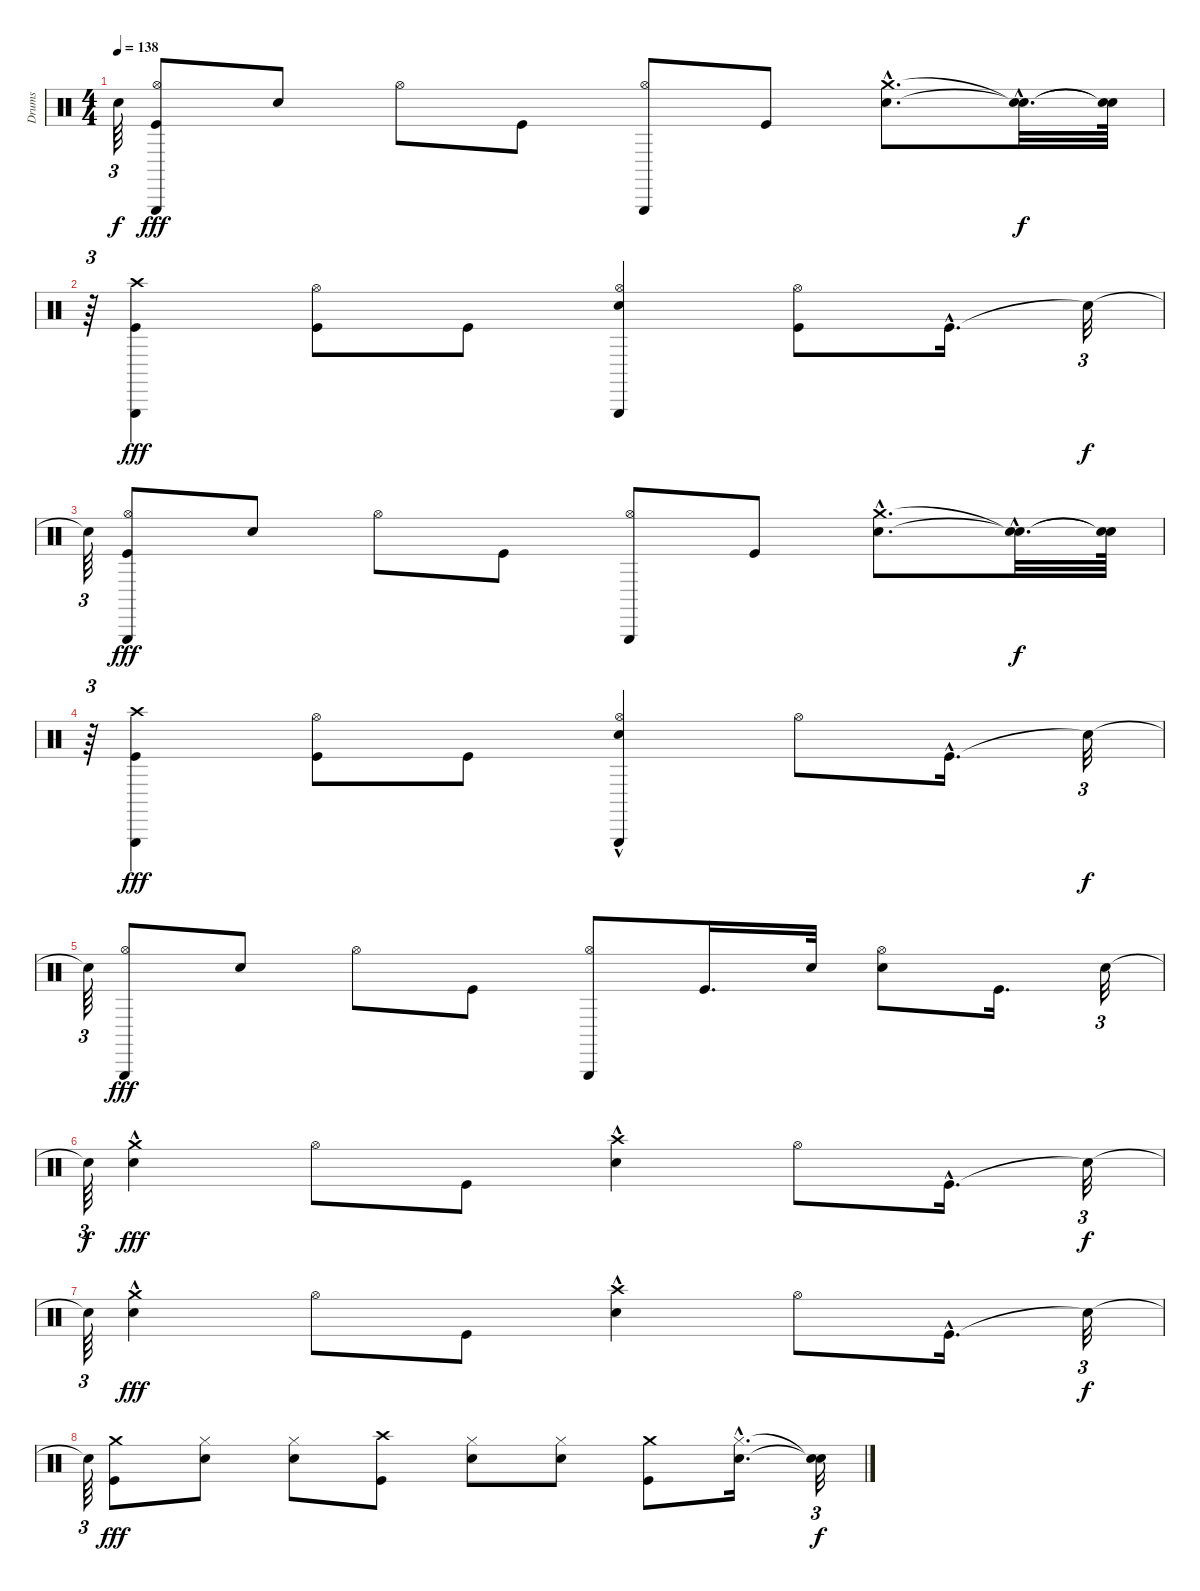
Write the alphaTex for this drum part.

\track ("Drums" "Drums") {instrument percussion}
\staff {score}
\articulation defaults
\ts (4 4)
\tempo 138
\clef neutral
\ks c "Snare (hit)"{t}.64{tu (3 2) dy f}
("Kick (hit)" "Hi-Hat (open)" "Triangle (hit)").8{dy fff} "Snare (hit) 2".8 "Hi-Hat (open)".8 "Kick (hit)".8 ("Hi-Hat (open)" "Triangle (hit)").8 "Kick (hit)".8 ("Snare (hit) 2"{hac} "Crash medium (hit)"{hac}).8{d} ("Snare (hit)"{hac t} "Snare (hit)"{hac t}).32{d dy f} ("Snare (hit)"{t} "Snare (hit)"{t}).64 |
r.64{tu (3 2)} ("Kick (hit)" "Crash high (hit)" "Triangle (hit)").4{dy fff} ("Kick (hit)" "Hi-Hat (open)").8 "Kick (hit)".8 ("Snare (hit) 2" "Hi-Hat (open)" "Triangle (hit)").4 ("Kick (hit)" "Hi-Hat (open)").8 "Kick (hit)"{hac}.16{d} "Snare (hit)"{t}.32{tu (3 2) dy f} |
"Snare (hit)"{t}.64{tu (3 2)} ("Kick (hit)" "Hi-Hat (open)" "Triangle (hit)").8{dy fff} "Snare (hit) 2".8 "Hi-Hat (open)".8 "Kick (hit)".8 ("Hi-Hat (open)" "Triangle (hit)").8 "Kick (hit)".8 ("Snare (hit) 2"{hac} "Crash medium (hit)"{hac}).8{d} ("Snare (hit)"{hac t} "Snare (hit)"{hac t}).32{d dy f} ("Snare (hit)"{t} "Snare (hit)"{t}).64 |
r.64{tu (3 2)} ("Kick (hit)" "Crash high (hit)" "Triangle (hit)").4{dy fff} ("Kick (hit)" "Hi-Hat (open)").8 "Kick (hit)".8 ("Snare (hit) 2"{hac} "Hi-Hat (open)" "Triangle (hit)").4 "Hi-Hat (open)".8 "Kick (hit)"{hac}.16{d} "Snare (hit)"{t}.32{tu (3 2) dy f} |
"Snare (hit)"{t}.64{tu (3 2)} ("Hi-Hat (open)" "Triangle (hit)").8{dy fff} "Snare (hit) 2".8 "Hi-Hat (open)".8 "Kick (hit)".8 ("Hi-Hat (open)" "Triangle (hit)").8 "Kick (hit)".16{d} "Snare (hit) 2".32 ("Snare (hit) 2" "Hi-Hat (open)").8 "Kick (hit)".16{d} "Snare (hit) 2".32{tu (3 2)} |
"Snare (hit)"{t}.64{tu (3 2) dy f} ("Snare (hit) 2"{hac} "Crash medium (hit)").4{dy fff} "Hi-Hat (open)".8 "Kick (hit)".8 ("Snare (hit) 2"{hac} "Crash high (hit)").4 "Hi-Hat (open)".8 "Kick (hit)"{hac}.16{d} "Snare (hit)"{t}.32{tu (3 2) dy f} |
"Snare (hit)"{t}.64{tu (3 2)} ("Snare (hit) 2"{hac} "Crash medium (hit)").4{dy fff} "Hi-Hat (open)".8 "Kick (hit)".8 ("Snare (hit) 2"{hac} "Crash high (hit)").4 "Hi-Hat (open)".8 "Kick (hit)"{hac}.16{d} "Snare (hit)"{t}.32{tu (3 2) dy f} |
"Snare (hit)"{t}.64{tu (3 2)} ("Kick (hit)" "Crash medium (hit)").8{dy fff} ("Snare (hit) 2" "Hi-Hat (closed)").8 ("Snare (hit) 2" "Hi-Hat (closed)").8 ("Kick (hit)" "Crash high (hit)").8 ("Snare (hit) 2" "Hi-Hat (closed)").8 ("Snare (hit) 2" "Hi-Hat (closed)").8 ("Kick (hit)" "Crash medium (hit)").8 ("Snare (hit) 2"{hac} "Hi-Hat (closed)"{hac}).16{d} ("Snare (hit)"{t} "Snare (hit)"{t}).32{tu (3 2) dy f}
